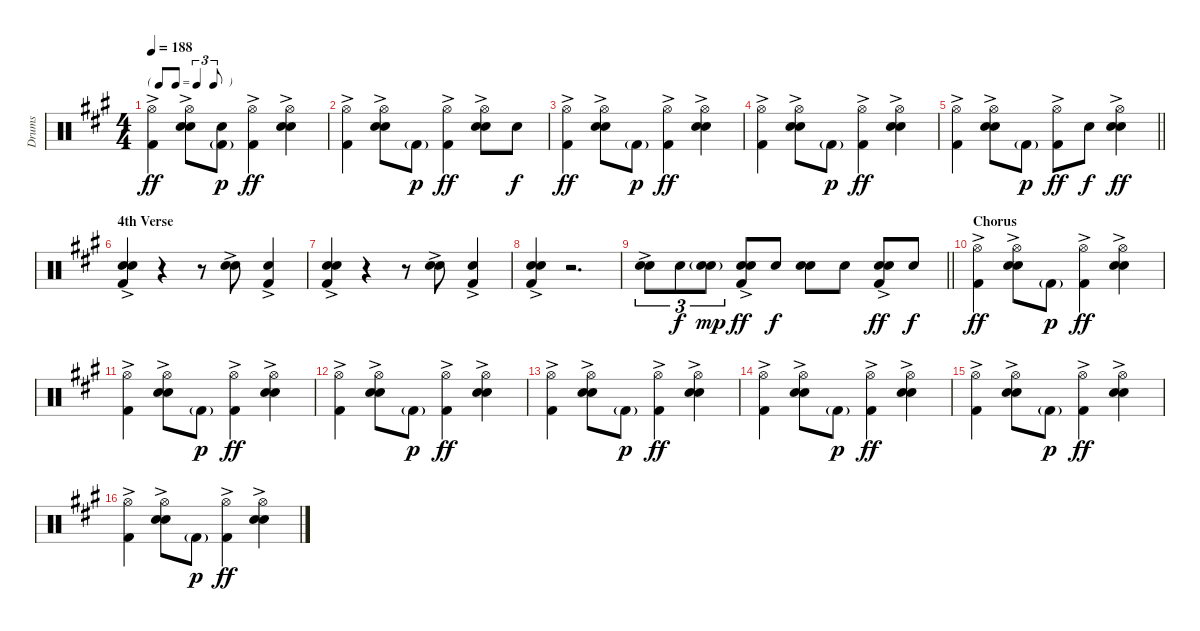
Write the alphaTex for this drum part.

\track ("Drums" "Drums") {instrument percussion}
\staff {score}
\articulation defaults
\ts (4 4)
\tf triplet8th
\tempo 188
\clef neutral
\ks a
("Hi-Hat (open)" "Kick (hit) 2"{ac}).4{dy ff} ("Hi-Hat (open)" "Electric Snare (hit)"{ac} "Snare (hit) 2").8 ("Snare (hit) 2" "Kick (hit) 2"{g}).8{dy p} ("Hi-Hat (open)" "Kick (hit) 2"{ac}).4{dy ff} ("Hi-Hat (open)" "Electric Snare (hit)"{ac} "Snare (hit) 2").4 |
("Hi-Hat (open)" "Kick (hit) 2"{ac}).4 ("Hi-Hat (open)" "Electric Snare (hit)"{ac} "Snare (hit) 2").8 "Kick (hit) 2"{g}.8{dy p} ("Hi-Hat (open)" "Kick (hit) 2"{ac}).4{dy ff} ("Hi-Hat (open)" "Electric Snare (hit)"{ac} "Snare (hit) 2").8 "Snare (hit) 2".8{dy f} |
("Hi-Hat (open)" "Kick (hit) 2"{ac}).4{dy ff} ("Hi-Hat (open)" "Electric Snare (hit)"{ac} "Snare (hit) 2").8 "Kick (hit) 2"{g}.8{dy p} ("Hi-Hat (open)" "Kick (hit) 2"{ac}).4{dy ff} ("Hi-Hat (open)" "Electric Snare (hit)"{ac} "Snare (hit) 2").4 |
("Hi-Hat (open)" "Kick (hit) 2"{ac}).4 ("Hi-Hat (open)" "Electric Snare (hit)"{ac} "Snare (hit) 2").8 "Kick (hit) 2"{g}.8{dy p} ("Hi-Hat (open)" "Kick (hit) 2"{ac}).4{dy ff} ("Hi-Hat (open)" "Electric Snare (hit)"{ac} "Snare (hit) 2").4 |
\barLineRight lightlight
("Hi-Hat (open)" "Kick (hit) 2"{ac}).4 ("Hi-Hat (open)" "Electric Snare (hit)"{ac} "Snare (hit) 2").8 "Kick (hit) 2"{g}.8{dy p} ("Hi-Hat (open)" "Kick (hit) 2"{ac}).8{dy ff} "Snare (hit) 2".8{dy f} ("Hi-Hat (open)" "Electric Snare (hit)"{ac} "Snare (hit) 2").4{dy ff} |
\section ("" "4th Verse")
("Electric Snare (hit)"{ac} "Snare (hit) 2" "Kick (hit) 2"{ac}).4 r.4 r.8 ("Electric Snare (hit)"{ac} "Snare (hit) 2").8 ("Snare (hit) 2" "Kick (hit) 2"{ac}).4 |
("Electric Snare (hit)"{ac} "Snare (hit) 2" "Kick (hit) 2"{ac}).4 r.4 r.8 ("Electric Snare (hit)"{ac} "Snare (hit) 2").8 ("Snare (hit) 2" "Kick (hit) 2"{ac}).4 |
("Electric Snare (hit)"{ac} "Snare (hit) 2" "Kick (hit) 2"{ac}).4 r.2{d} |
\barLineRight lightlight
("Electric Snare (hit)"{ac} "Snare (hit) 2").8{tu (3 2)} "Snare (hit) 2".8{tu (3 2) dy f} ("Electric Snare (hit)"{g} "Snare (hit) 2").8{tu (3 2) dy mp} ("Electric Snare (hit)"{ac} "Snare (hit) 2" "Kick (hit) 2").8{dy ff} "Snare (hit) 2".8{dy f} ("Electric Snare (hit)" "Snare (hit) 2").8 "Snare (hit) 2".8 ("Electric Snare (hit)"{ac} "Snare (hit) 2" "Kick (hit) 2").8{dy ff} "Snare (hit) 2".8{dy f} |
\section ("" "Chorus")
("Hi-Hat (open)" "Kick (hit) 2"{ac}).4{dy ff} ("Hi-Hat (open)" "Electric Snare (hit)"{ac} "Snare (hit) 2").8 "Kick (hit) 2"{g}.8{dy p} ("Hi-Hat (open)" "Kick (hit) 2"{ac}).4{dy ff} ("Hi-Hat (open)" "Electric Snare (hit)"{ac} "Snare (hit) 2").4 |
("Hi-Hat (open)" "Kick (hit) 2"{ac}).4 ("Hi-Hat (open)" "Electric Snare (hit)"{ac} "Snare (hit) 2").8 "Kick (hit) 2"{g}.8{dy p} ("Hi-Hat (open)" "Kick (hit) 2"{ac}).4{dy ff} ("Hi-Hat (open)" "Electric Snare (hit)"{ac} "Snare (hit) 2").4 |
("Hi-Hat (open)" "Kick (hit) 2"{ac}).4 ("Hi-Hat (open)" "Electric Snare (hit)"{ac} "Snare (hit) 2").8 "Kick (hit) 2"{g}.8{dy p} ("Hi-Hat (open)" "Kick (hit) 2"{ac}).4{dy ff} ("Hi-Hat (open)" "Electric Snare (hit)"{ac} "Snare (hit) 2").4 |
("Hi-Hat (open)" "Kick (hit) 2"{ac}).4 ("Hi-Hat (open)" "Electric Snare (hit)"{ac} "Snare (hit) 2").8 "Kick (hit) 2"{g}.8{dy p} ("Hi-Hat (open)" "Kick (hit) 2"{ac}).4{dy ff} ("Hi-Hat (open)" "Electric Snare (hit)"{ac} "Snare (hit) 2").4 |
("Hi-Hat (open)" "Kick (hit) 2"{ac}).4 ("Hi-Hat (open)" "Electric Snare (hit)"{ac} "Snare (hit) 2").8 "Kick (hit) 2"{g}.8{dy p} ("Hi-Hat (open)" "Kick (hit) 2"{ac}).4{dy ff} ("Hi-Hat (open)" "Electric Snare (hit)"{ac} "Snare (hit) 2").4 |
("Hi-Hat (open)" "Kick (hit) 2"{ac}).4 ("Hi-Hat (open)" "Electric Snare (hit)"{ac} "Snare (hit) 2").8 "Kick (hit) 2"{g}.8{dy p} ("Hi-Hat (open)" "Kick (hit) 2"{ac}).4{dy ff} ("Hi-Hat (open)" "Electric Snare (hit)"{ac} "Snare (hit) 2").4 |
("Hi-Hat (open)" "Kick (hit) 2"{ac}).4 ("Hi-Hat (open)" "Electric Snare (hit)"{ac} "Snare (hit) 2").8 "Kick (hit) 2"{g}.8{dy p} ("Hi-Hat (open)" "Kick (hit) 2"{ac}).4{dy ff} ("Hi-Hat (open)" "Electric Snare (hit)"{ac} "Snare (hit) 2").4
